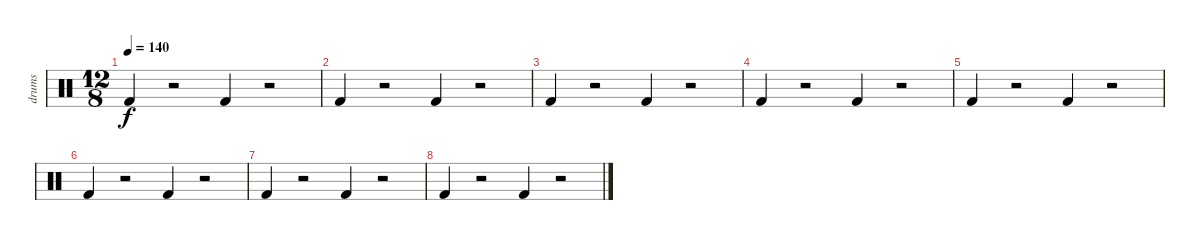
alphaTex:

\track ("drums" "drums") {instrument percussion}
\staff {score}
\articulation defaults
\ts (12 8)
\tempo 140
\clef neutral
\ks c "Kick (hit) 2".4{dy f}
r.2 "Kick (hit) 2".4 r.2 |
"Kick (hit) 2".4 r.2 "Kick (hit) 2".4 r.2 |
"Kick (hit) 2".4 r.2 "Kick (hit) 2".4 r.2 |
"Kick (hit) 2".4 r.2 "Kick (hit) 2".4 r.2 |
"Kick (hit) 2".4 r.2 "Kick (hit) 2".4 r.2 |
"Kick (hit) 2".4 r.2 "Kick (hit) 2".4 r.2 |
"Kick (hit) 2".4 r.2 "Kick (hit) 2".4 r.2 |
"Kick (hit) 2".4 r.2 "Kick (hit) 2".4 r.2
